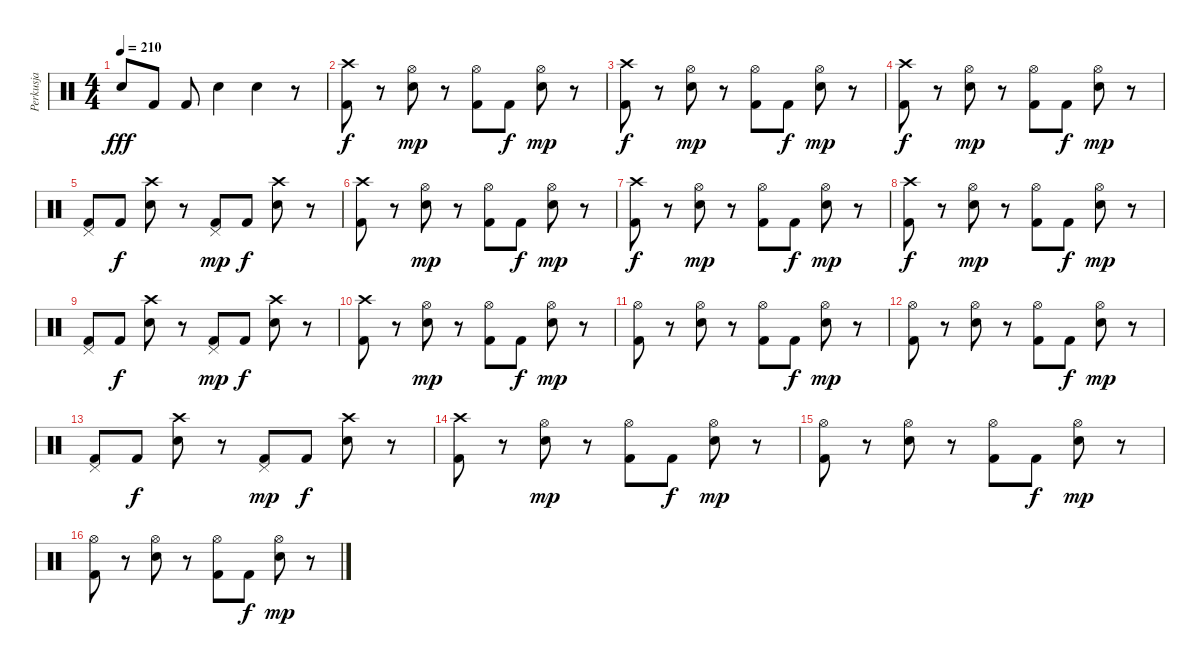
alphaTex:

\track ("Perkusja" "Perkusja") {instrument percussion}
\staff {score}
\articulation defaults
\ts (4 4)
\tempo 210
\clef neutral
\ks c "Snare (hit) 2".8{dy fff} "Kick (hit) 2".8 "Kick (hit) 2".8 "Snare (hit) 2".4 "Snare (hit) 2".4
r.8 |
("Crash high (hit)" "Kick (hit) 2").8{dy f} r.8 ("Hi-Hat (open)" "Snare (hit) 2").8{dy mp} r.8 ("Hi-Hat (open)" "Kick (hit) 2").8 "Kick (hit) 2".8{dy f} ("Hi-Hat (open)" "Snare (hit) 2").8{dy mp} r.8 |
("Crash high (hit)" "Kick (hit) 2").8{dy f} r.8 ("Hi-Hat (open)" "Snare (hit) 2").8{dy mp} r.8 ("Hi-Hat (open)" "Kick (hit) 2").8 "Kick (hit) 2".8{dy f} ("Hi-Hat (open)" "Snare (hit) 2").8{dy mp} r.8 |
("Crash high (hit)" "Kick (hit) 2").8{dy f} r.8 ("Hi-Hat (open)" "Snare (hit) 2").8{dy mp} r.8 ("Hi-Hat (open)" "Kick (hit) 2").8 "Kick (hit) 2".8{dy f} ("Hi-Hat (open)" "Snare (hit) 2").8{dy mp} r.8 |
("Pedal Hi-Hat (hit)" "Kick (hit) 2").8 "Kick (hit) 2".8{dy f} ("Crash high (hit)" "Snare (hit) 2").8 r.8 ("Pedal Hi-Hat (hit)" "Kick (hit) 2").8{dy mp} "Kick (hit) 2".8{dy f} ("Crash high (hit)" "Snare (hit) 2").8 r.8 |
("Crash high (hit)" "Kick (hit) 2").8 r.8 ("Hi-Hat (open)" "Snare (hit) 2").8{dy mp} r.8 ("Hi-Hat (open)" "Kick (hit) 2").8 "Kick (hit) 2".8{dy f} ("Hi-Hat (open)" "Snare (hit) 2").8{dy mp} r.8 |
("Crash high (hit)" "Kick (hit) 2").8{dy f} r.8 ("Hi-Hat (open)" "Snare (hit) 2").8{dy mp} r.8 ("Hi-Hat (open)" "Kick (hit) 2").8 "Kick (hit) 2".8{dy f} ("Hi-Hat (open)" "Snare (hit) 2").8{dy mp} r.8 |
("Crash high (hit)" "Kick (hit) 2").8{dy f} r.8 ("Hi-Hat (open)" "Snare (hit) 2").8{dy mp} r.8 ("Hi-Hat (open)" "Kick (hit) 2").8 "Kick (hit) 2".8{dy f} ("Hi-Hat (open)" "Snare (hit) 2").8{dy mp} r.8 |
("Pedal Hi-Hat (hit)" "Kick (hit) 2").8 "Kick (hit) 2".8{dy f} ("Crash high (hit)" "Snare (hit) 2").8 r.8 ("Pedal Hi-Hat (hit)" "Kick (hit) 2").8{dy mp} "Kick (hit) 2".8{dy f} ("Crash high (hit)" "Snare (hit) 2").8 r.8 |
("Crash high (hit)" "Kick (hit) 2").8 r.8 ("Hi-Hat (open)" "Snare (hit) 2").8{dy mp} r.8 ("Hi-Hat (open)" "Kick (hit) 2").8 "Kick (hit) 2".8{dy f} ("Hi-Hat (open)" "Snare (hit) 2").8{dy mp} r.8 |
("Hi-Hat (open)" "Kick (hit) 2").8 r.8 ("Hi-Hat (open)" "Snare (hit) 2").8 r.8 ("Hi-Hat (open)" "Kick (hit) 2").8 "Kick (hit) 2".8{dy f} ("Hi-Hat (open)" "Snare (hit) 2").8{dy mp} r.8 |
("Hi-Hat (open)" "Kick (hit) 2").8 r.8 ("Hi-Hat (open)" "Snare (hit) 2").8 r.8 ("Hi-Hat (open)" "Kick (hit) 2").8 "Kick (hit) 2".8{dy f} ("Hi-Hat (open)" "Snare (hit) 2").8{dy mp} r.8 |
("Pedal Hi-Hat (hit)" "Kick (hit) 2").8 "Kick (hit) 2".8{dy f} ("Crash high (hit)" "Snare (hit) 2").8 r.8 ("Pedal Hi-Hat (hit)" "Kick (hit) 2").8{dy mp} "Kick (hit) 2".8{dy f} ("Crash high (hit)" "Snare (hit) 2").8 r.8 |
("Crash high (hit)" "Kick (hit) 2").8 r.8 ("Hi-Hat (open)" "Snare (hit) 2").8{dy mp} r.8 ("Hi-Hat (open)" "Kick (hit) 2").8 "Kick (hit) 2".8{dy f} ("Hi-Hat (open)" "Snare (hit) 2").8{dy mp} r.8 |
("Hi-Hat (open)" "Kick (hit) 2").8 r.8 ("Hi-Hat (open)" "Snare (hit) 2").8 r.8 ("Hi-Hat (open)" "Kick (hit) 2").8 "Kick (hit) 2".8{dy f} ("Hi-Hat (open)" "Snare (hit) 2").8{dy mp} r.8 |
("Hi-Hat (open)" "Kick (hit) 2").8 r.8 ("Hi-Hat (open)" "Snare (hit) 2").8 r.8 ("Hi-Hat (open)" "Kick (hit) 2").8 "Kick (hit) 2".8{dy f} ("Hi-Hat (open)" "Snare (hit) 2").8{dy mp} r.8
